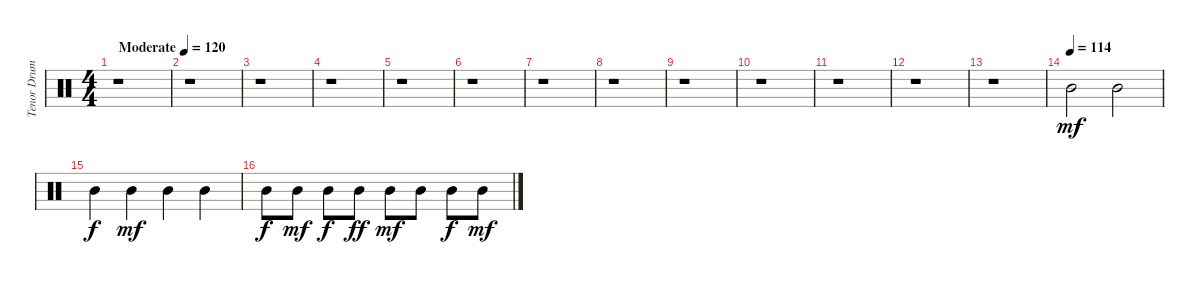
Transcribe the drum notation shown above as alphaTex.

\track ("Tenor Drum" "Tenor Drum") {instrument percussion}
\staff {score}
\articulation defaults
\ts (4 4)
\tempo (120 "Moderate")
\clef neutral
\ks c
r.1{dy mf} |
r.1 |
r.1 |
r.1 |
r.1 |
r.1 |
r.1 |
r.1 |
r.1 |
r.1 |
r.1 |
r.1 |
r.1 |
\tempo (114)
"Mid Tom (hit)".2 "Mid Tom (hit)".2 |
"Mid Tom (hit)".4{dy f} "Mid Tom (hit)".4{dy mf} "Mid Tom (hit)".4 "Mid Tom (hit)".4 |
"Mid Tom (hit)".8{dy f} "Mid Tom (hit)".8{dy mf} "Mid Tom (hit)".8{dy f} "Mid Tom (hit)".8{dy ff} "Mid Tom (hit)".8{dy mf} "Mid Tom (hit)".8 "Mid Tom (hit)".8{dy f} "Mid Tom (hit)".8{dy mf}
